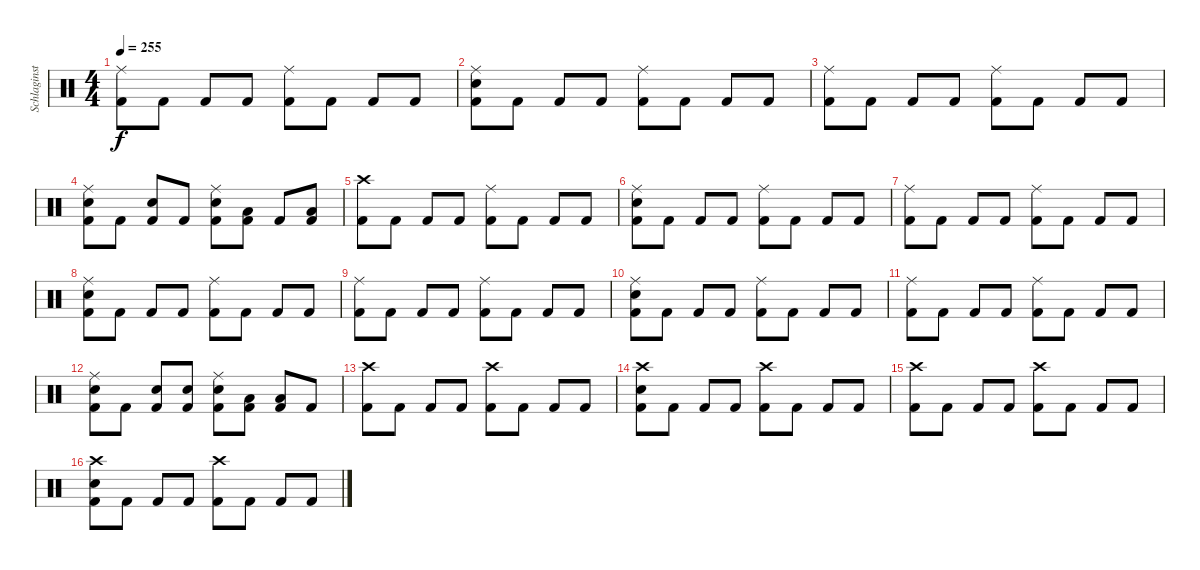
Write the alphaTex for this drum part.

\track ("Schlaginstrumente - Auswahl" "Schlaginst") {instrument percussion}
\staff {score}
\articulation defaults
\ts (4 4)
\tempo 255
\clef neutral
\ks c
("Ride (middle)" "Kick (hit) 2").8{dy f} "Kick (hit) 2".8 "Kick (hit) 2".8 "Kick (hit) 2".8 ("Ride (middle)" "Kick (hit) 2").8 "Kick (hit) 2".8 "Kick (hit) 2".8 "Kick (hit) 2".8 |
("Ride (middle)" "Electric Snare (hit)" "Kick (hit) 2").8 "Kick (hit) 2".8 "Kick (hit) 2".8 "Kick (hit) 2".8 ("Ride (middle)" "Kick (hit) 2").8 "Kick (hit) 2".8 "Kick (hit) 2".8 "Kick (hit) 2".8 |
("Ride (middle)" "Kick (hit) 2").8 "Kick (hit) 2".8 "Kick (hit) 2".8 "Kick (hit) 2".8 ("Ride (middle)" "Kick (hit) 2").8 "Kick (hit) 2".8 "Kick (hit) 2".8 "Kick (hit) 2".8 |
("Ride (middle)" "Electric Snare (hit)" "Kick (hit) 2").8 "Kick (hit) 2".8 ("Electric Snare (hit)" "Kick (hit) 2").8 "Kick (hit) 2".8 ("Ride (middle)" "Electric Snare (hit)" "Kick (hit) 2").8 ("Low Tom (hit)" "Kick (hit) 2").8 "Kick (hit) 2".8 ("Low Tom (hit)" "Kick (hit) 2").8 |
("Crash high (hit)" "Kick (hit) 2").8 "Kick (hit) 2".8 "Kick (hit) 2".8 "Kick (hit) 2".8 ("Ride (middle)" "Kick (hit) 2").8 "Kick (hit) 2".8 "Kick (hit) 2".8 "Kick (hit) 2".8 |
("Ride (middle)" "Electric Snare (hit)" "Kick (hit) 2").8 "Kick (hit) 2".8 "Kick (hit) 2".8 "Kick (hit) 2".8 ("Ride (middle)" "Kick (hit) 2").8 "Kick (hit) 2".8 "Kick (hit) 2".8 "Kick (hit) 2".8 |
("Ride (middle)" "Kick (hit) 2").8 "Kick (hit) 2".8 "Kick (hit) 2".8 "Kick (hit) 2".8 ("Ride (middle)" "Kick (hit) 2").8 "Kick (hit) 2".8 "Kick (hit) 2".8 "Kick (hit) 2".8 |
("Ride (middle)" "Electric Snare (hit)" "Kick (hit) 2").8 "Kick (hit) 2".8 "Kick (hit) 2".8 "Kick (hit) 2".8 ("Ride (middle)" "Kick (hit) 2").8 "Kick (hit) 2".8 "Kick (hit) 2".8 "Kick (hit) 2".8 |
("Ride (middle)" "Kick (hit) 2").8 "Kick (hit) 2".8 "Kick (hit) 2".8 "Kick (hit) 2".8 ("Ride (middle)" "Kick (hit) 2").8 "Kick (hit) 2".8 "Kick (hit) 2".8 "Kick (hit) 2".8 |
("Ride (middle)" "Electric Snare (hit)" "Kick (hit) 2").8 "Kick (hit) 2".8 "Kick (hit) 2".8 "Kick (hit) 2".8 ("Ride (middle)" "Kick (hit) 2").8 "Kick (hit) 2".8 "Kick (hit) 2".8 "Kick (hit) 2".8 |
("Ride (middle)" "Kick (hit) 2").8 "Kick (hit) 2".8 "Kick (hit) 2".8 "Kick (hit) 2".8 ("Ride (middle)" "Kick (hit) 2").8 "Kick (hit) 2".8 "Kick (hit) 2".8 "Kick (hit) 2".8 |
("Ride (middle)" "Electric Snare (hit)" "Kick (hit) 2").8 "Kick (hit) 2".8 ("Electric Snare (hit)" "Kick (hit) 2").8 ("Electric Snare (hit)" "Kick (hit) 2").8 ("Ride (middle)" "Electric Snare (hit)" "Kick (hit) 2").8 ("Low Tom (hit)" "Kick (hit) 2").8 ("Low Tom (hit)" "Kick (hit) 2").8 "Kick (hit) 2".8 |
("Crash high (hit)" "Kick (hit) 2").8 "Kick (hit) 2".8 "Kick (hit) 2".8 "Kick (hit) 2".8 ("Crash high (hit)" "Kick (hit) 2").8 "Kick (hit) 2".8 "Kick (hit) 2".8 "Kick (hit) 2".8 |
("Crash high (hit)" "Electric Snare (hit)" "Kick (hit) 2").8 "Kick (hit) 2".8 "Kick (hit) 2".8 "Kick (hit) 2".8 ("Crash high (hit)" "Kick (hit) 2").8 "Kick (hit) 2".8 "Kick (hit) 2".8 "Kick (hit) 2".8 |
("Crash high (hit)" "Kick (hit) 2").8 "Kick (hit) 2".8 "Kick (hit) 2".8 "Kick (hit) 2".8 ("Crash high (hit)" "Kick (hit) 2").8 "Kick (hit) 2".8 "Kick (hit) 2".8 "Kick (hit) 2".8 |
("Crash high (hit)" "Electric Snare (hit)" "Kick (hit) 2").8 "Kick (hit) 2".8 "Kick (hit) 2".8 "Kick (hit) 2".8 ("Crash high (hit)" "Kick (hit) 2").8 "Kick (hit) 2".8 "Kick (hit) 2".8 "Kick (hit) 2".8
